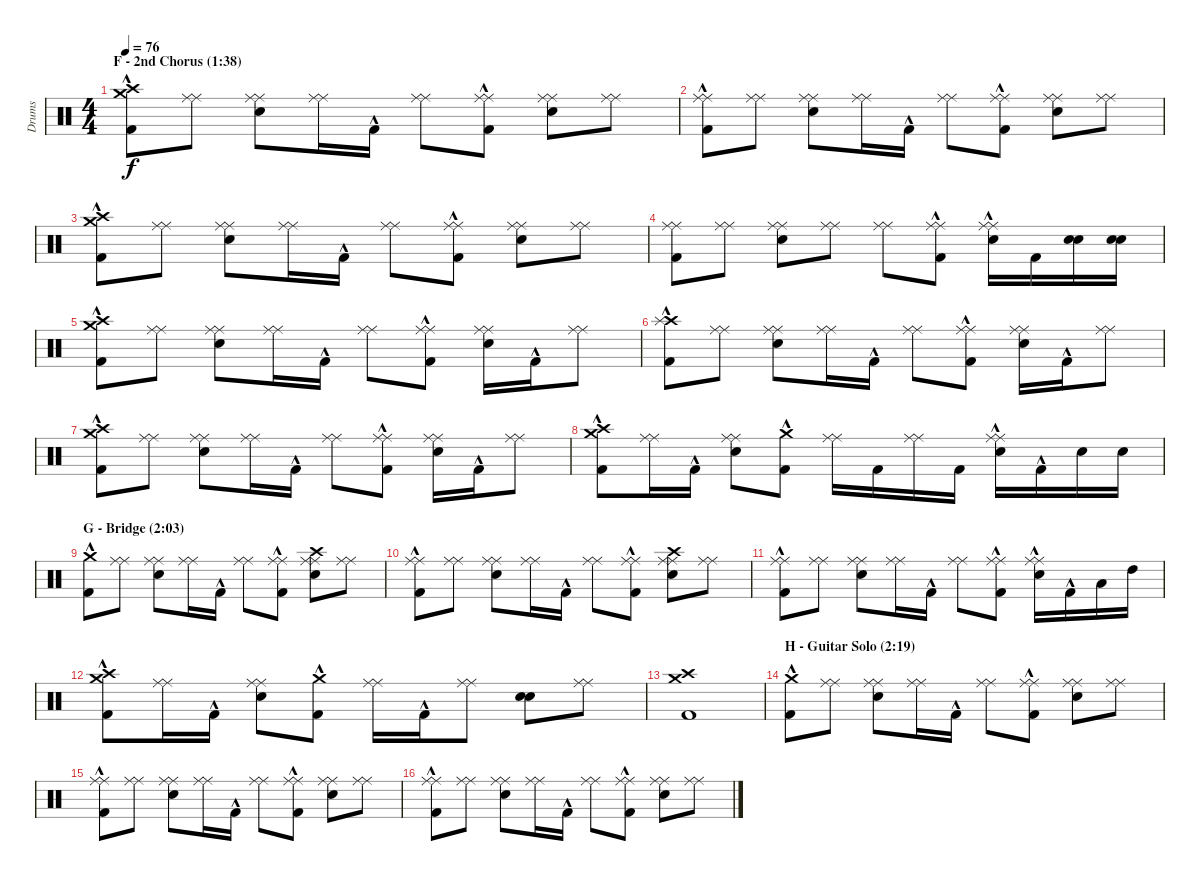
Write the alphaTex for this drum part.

\track ("Drums" "Drums") {instrument percussion}
\staff {score}
\articulation defaults
\ts (4 4)
\section ("" "F - 2nd Chorus (1:38)")
\tempo 76
\clef neutral
\ks c
("Kick (hit) 2"{hac} "Crash high (hit)" "Crash medium (hit)").8{dy f} ("Ride (middle)" "Ride (middle)").8 ("Snare (hit) 2" "Ride (middle)" "Ride (middle)").8 ("Ride (middle)" "Ride (middle)").16 "Kick (hit) 2"{hac}.16 ("Ride (middle)" "Ride (middle)").8 ("Kick (hit) 2"{hac} "Ride (middle)" "Ride (middle)").8 ("Snare (hit) 2" "Ride (middle)" "Ride (middle)").8 ("Ride (middle)" "Ride (middle)").8 |
("Kick (hit) 2"{hac} "Ride (middle)" "Ride (middle)").8 ("Ride (middle)" "Ride (middle)").8 ("Snare (hit) 2" "Ride (middle)" "Ride (middle)").8 ("Ride (middle)" "Ride (middle)").16 "Kick (hit) 2"{hac}.16 ("Ride (middle)" "Ride (middle)").8 ("Kick (hit) 2"{hac} "Ride (middle)" "Ride (middle)").8 ("Snare (hit) 2" "Ride (middle)" "Ride (middle)").8 ("Ride (middle)" "Ride (middle)").8 |
("Kick (hit) 2"{hac} "Crash high (hit)" "Crash medium (hit)").8 ("Ride (middle)" "Ride (middle)").8 ("Snare (hit) 2" "Ride (middle)" "Ride (middle)").8 ("Ride (middle)" "Ride (middle)").16 "Kick (hit) 2"{hac}.16 ("Ride (middle)" "Ride (middle)").8 ("Kick (hit) 2"{hac} "Ride (middle)" "Ride (middle)").8 ("Snare (hit) 2" "Ride (middle)" "Ride (middle)").8 ("Ride (middle)" "Ride (middle)").8 |
("Kick (hit) 2" "Ride (middle)" "Ride (middle)").8 ("Ride (middle)" "Ride (middle)").8 ("Snare (hit) 2" "Ride (middle)" "Ride (middle)").8 ("Ride (middle)" "Ride (middle)").8 ("Ride (middle)" "Ride (middle)").8 ("Kick (hit) 2"{hac} "Ride (middle)" "Ride (middle)").8 ("Snare (hit) 2" "Ride (middle)"{hac} "Ride (middle)"{hac}).16 "Kick (hit) 2".16 ("Electric Snare (hit)" "Snare (hit) 2").16 ("Electric Snare (hit)" "Snare (hit) 2").16 |
("Kick (hit) 2"{hac} "Crash high (hit)" "Crash medium (hit)").8 ("Ride (middle)" "Ride (middle)").8 ("Snare (hit) 2" "Ride (middle)" "Ride (middle)").8 ("Ride (middle)" "Ride (middle)").16 "Kick (hit) 2"{hac}.16 ("Ride (middle)" "Ride (middle)").8 ("Kick (hit) 2"{hac} "Ride (middle)" "Ride (middle)").8 ("Snare (hit) 2" "Ride (middle)" "Ride (middle)").16 "Kick (hit) 2"{hac}.16 ("Ride (middle)" "Ride (middle)").8 |
("Kick (hit) 2"{hac} "Crash high (hit)" "Splash (hit)").8 ("Ride (middle)" "Ride (middle)").8 ("Snare (hit) 2" "Ride (middle)" "Ride (middle)").8 ("Ride (middle)" "Ride (middle)").16 "Kick (hit) 2"{hac}.16 ("Ride (middle)" "Ride (middle)").8 ("Kick (hit) 2"{hac} "Ride (middle)" "Ride (middle)").8 ("Snare (hit) 2" "Ride (middle)" "Ride (middle)").16 "Kick (hit) 2"{hac}.16 ("Ride (middle)" "Ride (middle)").8 |
("Kick (hit) 2"{hac} "Crash high (hit)" "Crash medium (hit)").8 ("Ride (middle)" "Ride (middle)").8 ("Snare (hit) 2" "Ride (middle)" "Ride (middle)").8 ("Ride (middle)" "Ride (middle)").16 "Kick (hit) 2"{hac}.16 ("Ride (middle)" "Ride (middle)").8 ("Kick (hit) 2"{hac} "Ride (middle)" "Ride (middle)").8 ("Snare (hit) 2" "Ride (middle)" "Ride (middle)").16 "Kick (hit) 2"{hac}.16 ("Ride (middle)" "Ride (middle)").8 |
("Kick (hit) 2"{hac} "Crash high (hit)" "Crash medium (hit)"{hac}).8 ("Ride (middle)" "Ride (middle)").16 "Kick (hit) 2"{hac}.16 ("Snare (hit) 2" "Ride (middle)" "Ride (middle)").8 ("Kick (hit) 2"{hac} "Crash medium (hit)").8 ("Ride (middle)" "Ride (middle)").16 "Kick (hit) 2".16 ("Ride (middle)" "Ride (middle)").16 "Kick (hit) 2".16 ("Snare (hit) 2" "Ride (middle)"{hac} "Ride (middle)"{hac}).16 "Kick (hit) 2"{hac}.16 "Snare (hit) 2".16 "Snare (hit) 2".16 |
\section ("" "G - Bridge (2:03)")
("Kick (hit) 2"{hac} "Crash medium (hit)"{hac}).8 ("Ride (middle)" "Ride (middle)").8 ("Snare (hit) 2" "Ride (middle)" "Ride (middle)").8 ("Ride (middle)" "Ride (middle)").16 "Kick (hit) 2"{hac}.16 ("Ride (middle)" "Ride (middle)").8 ("Kick (hit) 2"{hac} "Ride (middle)" "Ride (middle)").8 ("Snare (hit) 2" "Ride (middle)" "Ride (middle)" "Crash high (hit)").8 ("Ride (middle)" "Ride (middle)").8 |
("Kick (hit) 2"{hac} "Ride (middle)" "Ride (middle)").8 ("Ride (middle)" "Ride (middle)").8 ("Snare (hit) 2" "Ride (middle)" "Ride (middle)").8 ("Ride (middle)" "Ride (middle)").16 "Kick (hit) 2"{hac}.16 ("Ride (middle)" "Ride (middle)").8 ("Kick (hit) 2"{hac} "Ride (middle)" "Ride (middle)").8 ("Snare (hit) 2" "Ride (middle)" "Ride (middle)" "Crash high (hit)").8 ("Ride (middle)" "Ride (middle)").8 |
("Kick (hit) 2"{hac} "Ride (middle)" "Ride (middle)").8 ("Ride (middle)" "Ride (middle)").8 ("Snare (hit) 2" "Ride (middle)" "Ride (middle)").8 ("Ride (middle)" "Ride (middle)").16 "Kick (hit) 2"{hac}.16 ("Ride (middle)" "Ride (middle)").8 ("Kick (hit) 2"{hac} "Ride (middle)" "Ride (middle)").8 ("Snare (hit) 2" "Ride (middle)"{hac} "Ride (middle)"{hac}).16 "Kick (hit) 2"{hac}.16 "Low Tom (hit)".16 "High Tom (hit)".16 |
("Kick (hit) 2"{hac} "Crash high (hit)" "Crash medium (hit)"{hac}).8 ("Ride (middle)" "Ride (middle)").16 "Kick (hit) 2"{hac}.16 ("Snare (hit) 2" "Ride (middle)" "Ride (middle)").8 ("Kick (hit) 2"{hac} "Crash medium (hit)").8 ("Ride (middle)" "Ride (middle)").16 "Kick (hit) 2"{hac}.16 ("Ride (middle)" "Ride (middle)").8 ("Electric Snare (hit)" "Snare (hit) 2").8 ("Ride (middle)" "Ride (middle)").8 |
("Kick (hit) 2" "Crash high (hit)" "Crash medium (hit)").1 |
\section ("" "H - Guitar Solo (2:19)")
("Kick (hit) 2"{hac} "Crash medium (hit)").8 ("Ride (middle)" "Ride (middle)").8 ("Snare (hit) 2" "Ride (middle)" "Ride (middle)").8 ("Ride (middle)" "Ride (middle)").16 "Kick (hit) 2"{hac}.16 ("Ride (middle)" "Ride (middle)").8 ("Kick (hit) 2"{hac} "Ride (middle)" "Ride (middle)").8 ("Snare (hit) 2" "Ride (middle)" "Ride (middle)").8 ("Ride (middle)" "Ride (middle)").8 |
("Kick (hit) 2"{hac} "Ride (middle)" "Ride (middle)").8 ("Ride (middle)" "Ride (middle)").8 ("Snare (hit) 2" "Ride (middle)" "Ride (middle)").8 ("Ride (middle)" "Ride (middle)").16 "Kick (hit) 2"{hac}.16 ("Ride (middle)" "Ride (middle)").8 ("Kick (hit) 2"{hac} "Ride (middle)" "Ride (middle)").8 ("Snare (hit) 2" "Ride (middle)" "Ride (middle)").8 ("Ride (middle)" "Ride (middle)").8 |
("Kick (hit) 2"{hac} "Ride (middle)" "Ride (middle)").8 ("Ride (middle)" "Ride (middle)").8 ("Snare (hit) 2" "Ride (middle)" "Ride (middle)").8 ("Ride (middle)" "Ride (middle)").16 "Kick (hit) 2"{hac}.16 ("Ride (middle)" "Ride (middle)").8 ("Kick (hit) 2"{hac} "Ride (middle)" "Ride (middle)").8 ("Snare (hit) 2" "Ride (middle)" "Ride (middle)").8 ("Ride (middle)" "Ride (middle)").8
